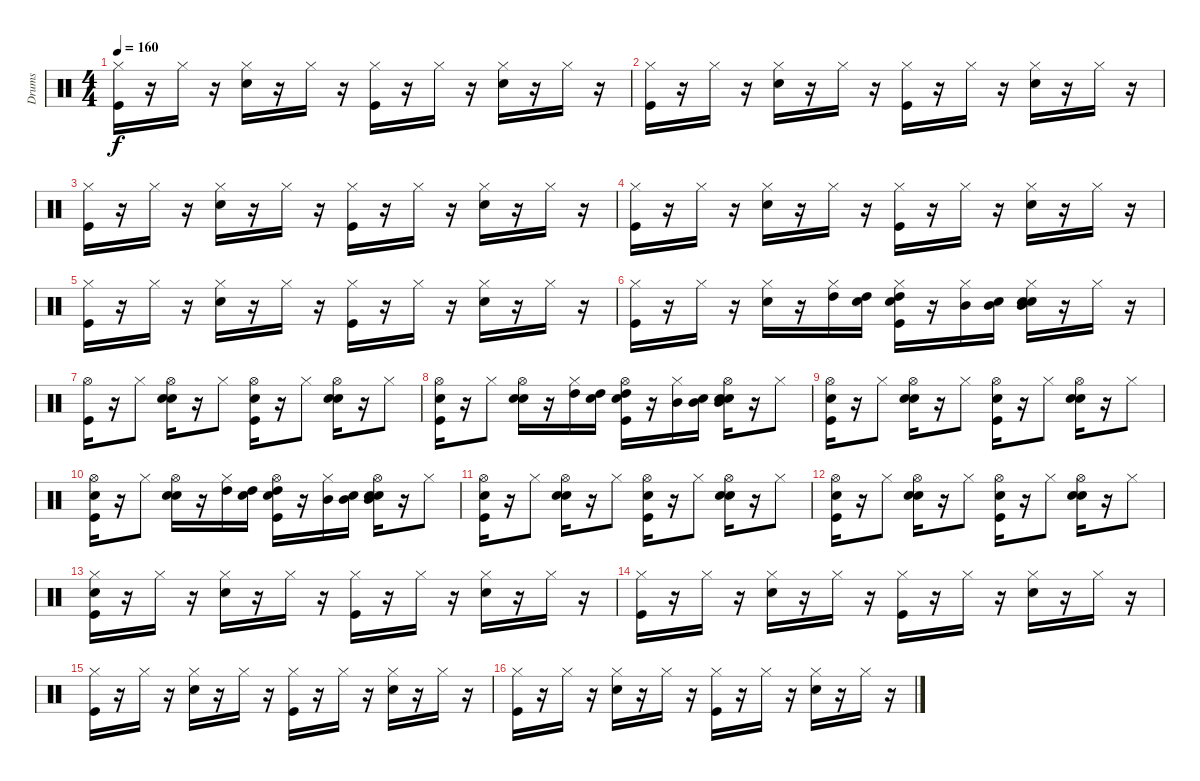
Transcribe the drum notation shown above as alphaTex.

\track ("Drums               " "Drums     ") {instrument percussion}
\staff {score}
\articulation defaults
\ts (4 4)
\tempo 160
\clef neutral
\ks c
("Kick (hit)" "Hi-Hat (closed)").16{dy f} r.16 "Hi-Hat (closed)".16 r.16 ("Snare (hit) 2" "Hi-Hat (closed)").16 r.16 "Hi-Hat (closed)".16 r.16 ("Kick (hit)" "Hi-Hat (closed)").16 r.16 "Hi-Hat (closed)".16 r.16 ("Snare (hit) 2" "Hi-Hat (closed)").16 r.16 "Hi-Hat (closed)".16 r.16 |
("Kick (hit)" "Hi-Hat (closed)").16 r.16 "Hi-Hat (closed)".16 r.16 ("Snare (hit) 2" "Hi-Hat (closed)").16 r.16 "Hi-Hat (closed)".16 r.16 ("Kick (hit)" "Hi-Hat (closed)").16 r.16 "Hi-Hat (closed)".16 r.16 ("Snare (hit) 2" "Hi-Hat (closed)").16 r.16 "Hi-Hat (closed)".16 r.16 |
("Kick (hit)" "Hi-Hat (closed)").16 r.16 "Hi-Hat (closed)".16 r.16 ("Snare (hit) 2" "Hi-Hat (closed)").16 r.16 "Hi-Hat (closed)".16 r.16 ("Kick (hit)" "Hi-Hat (closed)").16 r.16 "Hi-Hat (closed)".16 r.16 ("Snare (hit) 2" "Hi-Hat (closed)").16 r.16 "Hi-Hat (closed)".16 r.16 |
("Kick (hit)" "Hi-Hat (closed)").16 r.16 "Hi-Hat (closed)".16 r.16 ("Snare (hit) 2" "Hi-Hat (closed)").16 r.16 "Hi-Hat (closed)".16 r.16 ("Kick (hit)" "Hi-Hat (closed)").16 r.16 "Hi-Hat (closed)".16 r.16 ("Snare (hit) 2" "Hi-Hat (closed)").16 r.16 "Hi-Hat (closed)".16 r.16 |
("Kick (hit)" "Hi-Hat (closed)").16 r.16 "Hi-Hat (closed)".16 r.16 ("Snare (hit) 2" "Hi-Hat (closed)").16 r.16 "Hi-Hat (closed)".16 r.16 ("Kick (hit)" "Hi-Hat (closed)").16 r.16 "Hi-Hat (closed)".16 r.16 ("Snare (hit) 2" "Hi-Hat (closed)").16 r.16 "Hi-Hat (closed)".16 r.16 |
("Kick (hit)" "Hi-Hat (closed)").16 r.16 "Hi-Hat (closed)".16 r.16 ("Snare (hit) 2" "Hi-Hat (closed)").16 r.16 ("Hi-Hat (closed)" "High Tom (hit)").16 ("Snare (hit)" "High Tom (hit)").16 ("Snare (hit)" "Kick (hit)" "Hi-Hat (closed)" "High Tom (hit)").16 r.16 ("Hi-Hat (closed)" "Mid Tom (hit)").16 ("Snare (hit)" "Mid Tom (hit)").16 ("Snare (hit)" "Snare (hit) 2" "Hi-Hat (closed)" "Mid Tom (hit)").16 r.16 "Hi-Hat (closed)".16 r.16 |
("Kick (hit)" "Hi-Hat (open)").16 r.16 "Hi-Hat (closed)".8 ("Snare (hit)" "Snare (hit) 2" "Hi-Hat (open)").16 r.16 "Hi-Hat (closed)".8 ("Snare (hit)" "Kick (hit)" "Hi-Hat (open)").16 r.16 "Hi-Hat (closed)".8 ("Snare (hit)" "Snare (hit) 2" "Hi-Hat (open)").16 r.16 "Hi-Hat (closed)".8 |
("Snare (hit)" "Kick (hit)" "Hi-Hat (open)").16 r.16 "Hi-Hat (closed)".8 ("Snare (hit)" "Snare (hit) 2" "Hi-Hat (open)").16 r.16 ("High Tom (hit)" "Hi-Hat (closed)").16 ("Snare (hit)" "High Tom (hit)").16 ("Snare (hit)" "Kick (hit)" "High Tom (hit)" "Hi-Hat (open)").16 r.16 ("Mid Tom (hit)" "Hi-Hat (closed)").16 ("Snare (hit)" "Mid Tom (hit)").16 ("Snare (hit)" "Snare (hit) 2" "Mid Tom (hit)" "Hi-Hat (open)").16 r.16 "Hi-Hat (closed)".8 |
("Snare (hit)" "Kick (hit)" "Hi-Hat (open)").16 r.16 "Hi-Hat (closed)".8 ("Snare (hit)" "Snare (hit) 2" "Hi-Hat (open)").16 r.16 "Hi-Hat (closed)".8 ("Snare (hit)" "Kick (hit)" "Hi-Hat (open)").16 r.16 "Hi-Hat (closed)".8 ("Snare (hit)" "Snare (hit) 2" "Hi-Hat (open)").16 r.16 "Hi-Hat (closed)".8 |
("Snare (hit)" "Kick (hit)" "Hi-Hat (open)").16 r.16 "Hi-Hat (closed)".8 ("Snare (hit)" "Snare (hit) 2" "Hi-Hat (open)").16 r.16 ("Hi-Hat (closed)" "High Tom (hit)").16 ("Snare (hit)" "High Tom (hit)").16 ("Snare (hit)" "Kick (hit)" "High Tom (hit)" "Hi-Hat (open)").16 r.16 ("Hi-Hat (closed)" "Mid Tom (hit)").16 ("Snare (hit)" "Mid Tom (hit)").16 ("Snare (hit)" "Snare (hit) 2" "Mid Tom (hit)" "Hi-Hat (open)").16 r.16 "Hi-Hat (closed)".8 |
("Snare (hit)" "Kick (hit)" "Hi-Hat (open)").16 r.16 "Hi-Hat (closed)".8 ("Snare (hit)" "Snare (hit) 2" "Hi-Hat (open)").16 r.16 "Hi-Hat (closed)".8 ("Snare (hit)" "Kick (hit)" "Hi-Hat (open)").16 r.16 "Hi-Hat (closed)".8 ("Snare (hit)" "Snare (hit) 2" "Hi-Hat (open)").16 r.16 "Hi-Hat (closed)".8 |
("Snare (hit)" "Kick (hit)" "Hi-Hat (open)").16 r.16 "Hi-Hat (closed)".8 ("Snare (hit)" "Snare (hit) 2" "Hi-Hat (open)").16 r.16 "Hi-Hat (closed)".8 ("Snare (hit)" "Kick (hit)" "Hi-Hat (open)").16 r.16 "Hi-Hat (closed)".8 ("Snare (hit)" "Snare (hit) 2" "Hi-Hat (open)").16 r.16 "Hi-Hat (closed)".8 |
("Snare (hit)" "Kick (hit)" "Hi-Hat (closed)").16 r.16 "Hi-Hat (closed)".16 r.16 ("Snare (hit) 2" "Hi-Hat (closed)").16 r.16 "Hi-Hat (closed)".16 r.16 ("Kick (hit)" "Hi-Hat (closed)").16 r.16 "Hi-Hat (closed)".16 r.16 ("Snare (hit) 2" "Hi-Hat (closed)").16 r.16 "Hi-Hat (closed)".16 r.16 |
("Kick (hit)" "Hi-Hat (closed)").16 r.16 "Hi-Hat (closed)".16 r.16 ("Snare (hit) 2" "Hi-Hat (closed)").16 r.16 "Hi-Hat (closed)".16 r.16 ("Kick (hit)" "Hi-Hat (closed)").16 r.16 "Hi-Hat (closed)".16 r.16 ("Snare (hit) 2" "Hi-Hat (closed)").16 r.16 "Hi-Hat (closed)".16 r.16 |
("Kick (hit)" "Hi-Hat (closed)").16 r.16 "Hi-Hat (closed)".16 r.16 ("Snare (hit) 2" "Hi-Hat (closed)").16 r.16 "Hi-Hat (closed)".16 r.16 ("Kick (hit)" "Hi-Hat (closed)").16 r.16 "Hi-Hat (closed)".16 r.16 ("Snare (hit) 2" "Hi-Hat (closed)").16 r.16 "Hi-Hat (closed)".16 r.16 |
("Kick (hit)" "Hi-Hat (closed)").16 r.16 "Hi-Hat (closed)".16 r.16 ("Snare (hit) 2" "Hi-Hat (closed)").16 r.16 "Hi-Hat (closed)".16 r.16 ("Kick (hit)" "Hi-Hat (closed)").16 r.16 "Hi-Hat (closed)".16 r.16 ("Snare (hit) 2" "Hi-Hat (closed)").16 r.16 "Hi-Hat (closed)".16 r.16
